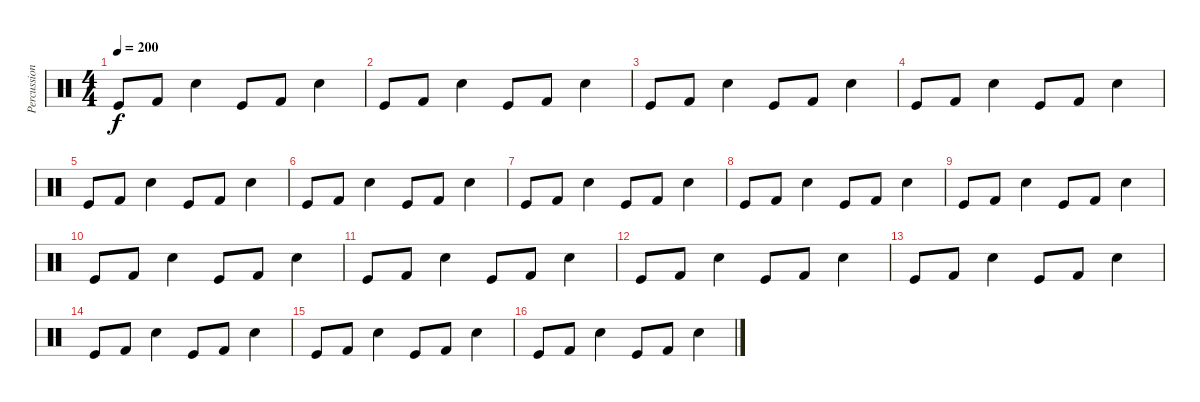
\track ("Percussion" "Percussion") {instrument percussion}
\staff {score}
\articulation defaults
\ts (4 4)
\tempo 200
\clef neutral
\ks c "Kick (hit)".8{dy f} "Kick (hit) 2".8 "Snare (hit) 2".4 "Kick (hit)".8 "Kick (hit) 2".8 "Snare (hit) 2".4
|
"Kick (hit)".8 "Kick (hit) 2".8 "Snare (hit) 2".4 "Kick (hit)".8 "Kick (hit) 2".8 "Snare (hit) 2".4 |
"Kick (hit)".8 "Kick (hit) 2".8 "Snare (hit) 2".4 "Kick (hit)".8 "Kick (hit) 2".8 "Snare (hit) 2".4 |
"Kick (hit)".8 "Kick (hit) 2".8 "Snare (hit) 2".4 "Kick (hit)".8 "Kick (hit) 2".8 "Snare (hit) 2".4 |
"Kick (hit)".8 "Kick (hit) 2".8 "Snare (hit) 2".4 "Kick (hit)".8 "Kick (hit) 2".8 "Snare (hit) 2".4 |
"Kick (hit)".8 "Kick (hit) 2".8 "Snare (hit) 2".4 "Kick (hit)".8 "Kick (hit) 2".8 "Snare (hit) 2".4 |
"Kick (hit)".8 "Kick (hit) 2".8 "Snare (hit) 2".4 "Kick (hit)".8 "Kick (hit) 2".8 "Snare (hit) 2".4 |
"Kick (hit)".8 "Kick (hit) 2".8 "Snare (hit) 2".4 "Kick (hit)".8 "Kick (hit) 2".8 "Snare (hit) 2".4 |
"Kick (hit)".8 "Kick (hit) 2".8 "Snare (hit) 2".4 "Kick (hit)".8 "Kick (hit) 2".8 "Snare (hit) 2".4 |
"Kick (hit)".8 "Kick (hit) 2".8 "Snare (hit) 2".4 "Kick (hit)".8 "Kick (hit) 2".8 "Snare (hit) 2".4 |
"Kick (hit)".8 "Kick (hit) 2".8 "Snare (hit) 2".4 "Kick (hit)".8 "Kick (hit) 2".8 "Snare (hit) 2".4 |
"Kick (hit)".8 "Kick (hit) 2".8 "Snare (hit) 2".4 "Kick (hit)".8 "Kick (hit) 2".8 "Snare (hit) 2".4 |
"Kick (hit)".8 "Kick (hit) 2".8 "Snare (hit) 2".4 "Kick (hit)".8 "Kick (hit) 2".8 "Snare (hit) 2".4 |
"Kick (hit)".8 "Kick (hit) 2".8 "Snare (hit) 2".4 "Kick (hit)".8 "Kick (hit) 2".8 "Snare (hit) 2".4 |
"Kick (hit)".8 "Kick (hit) 2".8 "Snare (hit) 2".4 "Kick (hit)".8 "Kick (hit) 2".8 "Snare (hit) 2".4 |
"Kick (hit)".8 "Kick (hit) 2".8 "Snare (hit) 2".4 "Kick (hit)".8 "Kick (hit) 2".8 "Snare (hit) 2".4
